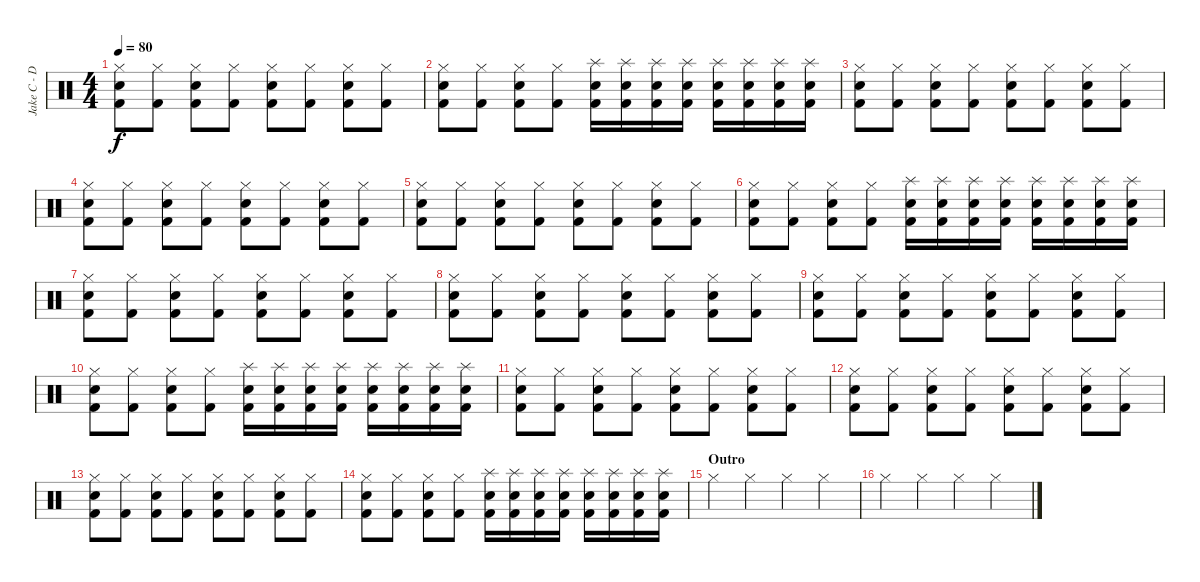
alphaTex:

\track ("Jake C - Drums" "Jake C - D") {instrument percussion}
\staff {score}
\articulation defaults
\ts (4 4)
\tempo 80
\clef neutral
\ks c
("Hi-Hat (closed)" "Electric Snare (hit)" "Kick (hit) 2").8{dy f} ("Hi-Hat (closed)" "Kick (hit) 2").8 ("Hi-Hat (closed)" "Electric Snare (hit)" "Kick (hit) 2").8 ("Hi-Hat (closed)" "Kick (hit) 2").8 ("Hi-Hat (closed)" "Electric Snare (hit)" "Kick (hit) 2").8 ("Hi-Hat (closed)" "Kick (hit) 2").8 ("Hi-Hat (closed)" "Electric Snare (hit)" "Kick (hit) 2").8 ("Hi-Hat (closed)" "Kick (hit) 2").8 |
("Hi-Hat (closed)" "Electric Snare (hit)" "Kick (hit) 2").8 ("Hi-Hat (closed)" "Kick (hit) 2").8 ("Hi-Hat (closed)" "Electric Snare (hit)" "Kick (hit) 2").8 ("Hi-Hat (closed)" "Kick (hit) 2").8 ("Splash (hit)" "Electric Snare (hit)" "Kick (hit) 2").16 ("Splash (hit)" "Electric Snare (hit)" "Kick (hit) 2").16 ("Splash (hit)" "Electric Snare (hit)" "Kick (hit) 2").16 ("Splash (hit)" "Electric Snare (hit)" "Kick (hit) 2").16 ("Splash (hit)" "Electric Snare (hit)" "Kick (hit) 2").16 ("Splash (hit)" "Electric Snare (hit)" "Kick (hit) 2").16 ("Splash (hit)" "Electric Snare (hit)" "Kick (hit) 2").16 ("Splash (hit)" "Electric Snare (hit)" "Kick (hit) 2").16 |
("Hi-Hat (closed)" "Electric Snare (hit)" "Kick (hit) 2").8 ("Hi-Hat (closed)" "Kick (hit) 2").8 ("Hi-Hat (closed)" "Electric Snare (hit)" "Kick (hit) 2").8 ("Hi-Hat (closed)" "Kick (hit) 2").8 ("Hi-Hat (closed)" "Electric Snare (hit)" "Kick (hit) 2").8 ("Hi-Hat (closed)" "Kick (hit) 2").8 ("Hi-Hat (closed)" "Electric Snare (hit)" "Kick (hit) 2").8 ("Hi-Hat (closed)" "Kick (hit) 2").8 |
("Hi-Hat (closed)" "Electric Snare (hit)" "Kick (hit) 2").8 ("Hi-Hat (closed)" "Kick (hit) 2").8 ("Hi-Hat (closed)" "Electric Snare (hit)" "Kick (hit) 2").8 ("Hi-Hat (closed)" "Kick (hit) 2").8 ("Hi-Hat (closed)" "Electric Snare (hit)" "Kick (hit) 2").8 ("Hi-Hat (closed)" "Kick (hit) 2").8 ("Hi-Hat (closed)" "Electric Snare (hit)" "Kick (hit) 2").8 ("Hi-Hat (closed)" "Kick (hit) 2").8 |
("Hi-Hat (closed)" "Electric Snare (hit)" "Kick (hit) 2").8 ("Hi-Hat (closed)" "Kick (hit) 2").8 ("Hi-Hat (closed)" "Electric Snare (hit)" "Kick (hit) 2").8 ("Hi-Hat (closed)" "Kick (hit) 2").8 ("Hi-Hat (closed)" "Electric Snare (hit)" "Kick (hit) 2").8 ("Hi-Hat (closed)" "Kick (hit) 2").8 ("Hi-Hat (closed)" "Electric Snare (hit)" "Kick (hit) 2").8 ("Hi-Hat (closed)" "Kick (hit) 2").8 |
("Hi-Hat (closed)" "Electric Snare (hit)" "Kick (hit) 2").8 ("Hi-Hat (closed)" "Kick (hit) 2").8 ("Hi-Hat (closed)" "Electric Snare (hit)" "Kick (hit) 2").8 ("Hi-Hat (closed)" "Kick (hit) 2").8 ("Splash (hit)" "Electric Snare (hit)" "Kick (hit) 2").16 ("Splash (hit)" "Electric Snare (hit)" "Kick (hit) 2").16 ("Splash (hit)" "Electric Snare (hit)" "Kick (hit) 2").16 ("Splash (hit)" "Electric Snare (hit)" "Kick (hit) 2").16 ("Splash (hit)" "Electric Snare (hit)" "Kick (hit) 2").16 ("Splash (hit)" "Electric Snare (hit)" "Kick (hit) 2").16 ("Splash (hit)" "Electric Snare (hit)" "Kick (hit) 2").16 ("Splash (hit)" "Electric Snare (hit)" "Kick (hit) 2").16 |
("Hi-Hat (closed)" "Electric Snare (hit)" "Kick (hit) 2").8 ("Hi-Hat (closed)" "Kick (hit) 2").8 ("Hi-Hat (closed)" "Electric Snare (hit)" "Kick (hit) 2").8 ("Hi-Hat (closed)" "Kick (hit) 2").8 ("Hi-Hat (closed)" "Electric Snare (hit)" "Kick (hit) 2").8 ("Hi-Hat (closed)" "Kick (hit) 2").8 ("Hi-Hat (closed)" "Electric Snare (hit)" "Kick (hit) 2").8 ("Hi-Hat (closed)" "Kick (hit) 2").8 |
("Hi-Hat (closed)" "Electric Snare (hit)" "Kick (hit) 2").8 ("Hi-Hat (closed)" "Kick (hit) 2").8 ("Hi-Hat (closed)" "Electric Snare (hit)" "Kick (hit) 2").8 ("Hi-Hat (closed)" "Kick (hit) 2").8 ("Hi-Hat (closed)" "Electric Snare (hit)" "Kick (hit) 2").8 ("Hi-Hat (closed)" "Kick (hit) 2").8 ("Hi-Hat (closed)" "Electric Snare (hit)" "Kick (hit) 2").8 ("Hi-Hat (closed)" "Kick (hit) 2").8 |
("Hi-Hat (closed)" "Electric Snare (hit)" "Kick (hit) 2").8 ("Hi-Hat (closed)" "Kick (hit) 2").8 ("Hi-Hat (closed)" "Electric Snare (hit)" "Kick (hit) 2").8 ("Hi-Hat (closed)" "Kick (hit) 2").8 ("Hi-Hat (closed)" "Electric Snare (hit)" "Kick (hit) 2").8 ("Hi-Hat (closed)" "Kick (hit) 2").8 ("Hi-Hat (closed)" "Electric Snare (hit)" "Kick (hit) 2").8 ("Hi-Hat (closed)" "Kick (hit) 2").8 |
("Hi-Hat (closed)" "Electric Snare (hit)" "Kick (hit) 2").8 ("Hi-Hat (closed)" "Kick (hit) 2").8 ("Hi-Hat (closed)" "Electric Snare (hit)" "Kick (hit) 2").8 ("Hi-Hat (closed)" "Kick (hit) 2").8 ("Splash (hit)" "Electric Snare (hit)" "Kick (hit) 2").16 ("Splash (hit)" "Electric Snare (hit)" "Kick (hit) 2").16 ("Splash (hit)" "Electric Snare (hit)" "Kick (hit) 2").16 ("Splash (hit)" "Electric Snare (hit)" "Kick (hit) 2").16 ("Splash (hit)" "Electric Snare (hit)" "Kick (hit) 2").16 ("Splash (hit)" "Electric Snare (hit)" "Kick (hit) 2").16 ("Splash (hit)" "Electric Snare (hit)" "Kick (hit) 2").16 ("Splash (hit)" "Electric Snare (hit)" "Kick (hit) 2").16 |
("Hi-Hat (closed)" "Electric Snare (hit)" "Kick (hit) 2").8 ("Hi-Hat (closed)" "Kick (hit) 2").8 ("Hi-Hat (closed)" "Electric Snare (hit)" "Kick (hit) 2").8 ("Hi-Hat (closed)" "Kick (hit) 2").8 ("Hi-Hat (closed)" "Electric Snare (hit)" "Kick (hit) 2").8 ("Hi-Hat (closed)" "Kick (hit) 2").8 ("Hi-Hat (closed)" "Electric Snare (hit)" "Kick (hit) 2").8 ("Hi-Hat (closed)" "Kick (hit) 2").8 |
("Hi-Hat (closed)" "Electric Snare (hit)" "Kick (hit) 2").8 ("Hi-Hat (closed)" "Kick (hit) 2").8 ("Hi-Hat (closed)" "Electric Snare (hit)" "Kick (hit) 2").8 ("Hi-Hat (closed)" "Kick (hit) 2").8 ("Hi-Hat (closed)" "Electric Snare (hit)" "Kick (hit) 2").8 ("Hi-Hat (closed)" "Kick (hit) 2").8 ("Hi-Hat (closed)" "Electric Snare (hit)" "Kick (hit) 2").8 ("Hi-Hat (closed)" "Kick (hit) 2").8 |
("Hi-Hat (closed)" "Electric Snare (hit)" "Kick (hit) 2").8 ("Hi-Hat (closed)" "Kick (hit) 2").8 ("Hi-Hat (closed)" "Electric Snare (hit)" "Kick (hit) 2").8 ("Hi-Hat (closed)" "Kick (hit) 2").8 ("Hi-Hat (closed)" "Electric Snare (hit)" "Kick (hit) 2").8 ("Hi-Hat (closed)" "Kick (hit) 2").8 ("Hi-Hat (closed)" "Electric Snare (hit)" "Kick (hit) 2").8 ("Hi-Hat (closed)" "Kick (hit) 2").8 |
("Hi-Hat (closed)" "Electric Snare (hit)" "Kick (hit) 2").8 ("Hi-Hat (closed)" "Kick (hit) 2").8 ("Hi-Hat (closed)" "Electric Snare (hit)" "Kick (hit) 2").8 ("Hi-Hat (closed)" "Kick (hit) 2").8 ("Splash (hit)" "Electric Snare (hit)" "Kick (hit) 2").16 ("Splash (hit)" "Electric Snare (hit)" "Kick (hit) 2").16 ("Splash (hit)" "Electric Snare (hit)" "Kick (hit) 2").16 ("Splash (hit)" "Electric Snare (hit)" "Kick (hit) 2").16 ("Splash (hit)" "Electric Snare (hit)" "Kick (hit) 2").16 ("Splash (hit)" "Electric Snare (hit)" "Kick (hit) 2").16 ("Splash (hit)" "Electric Snare (hit)" "Kick (hit) 2").16 ("Splash (hit)" "Electric Snare (hit)" "Kick (hit) 2").16 |
\section ("" "Outro")
"Hi-Hat (closed)".4 "Hi-Hat (closed)".4 "Hi-Hat (closed)".4 "Hi-Hat (closed)".4 |
"Hi-Hat (closed)".4 "Hi-Hat (closed)".4 "Hi-Hat (closed)".4 "Hi-Hat (closed)".4
